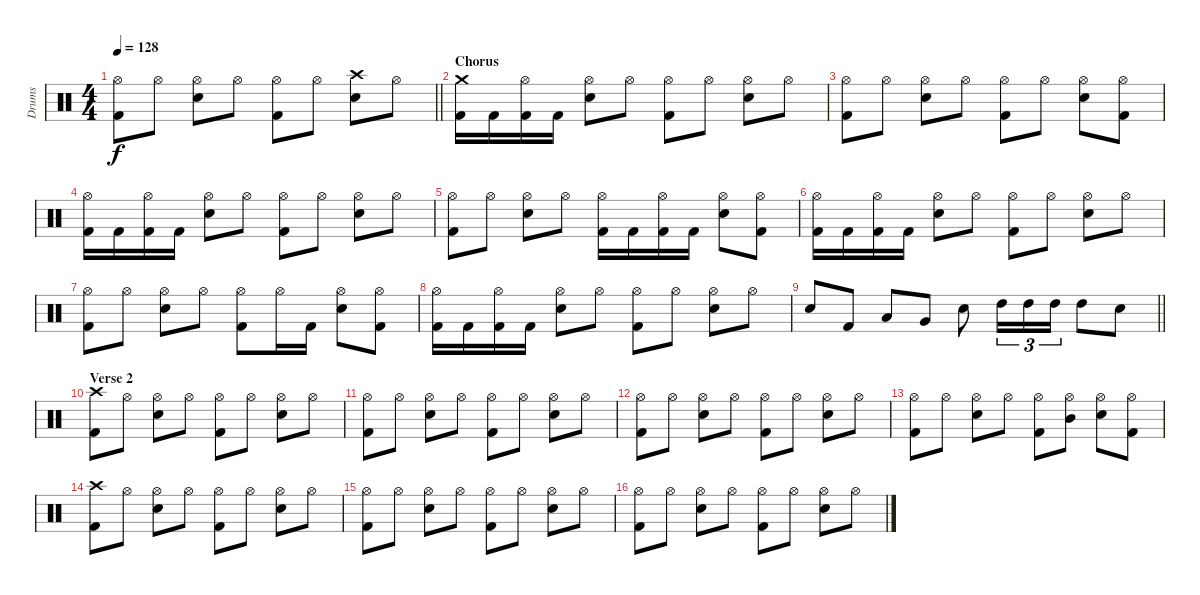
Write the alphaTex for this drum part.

\track ("Drums" "Drums") {instrument percussion}
\staff {score}
\articulation defaults
\ts (4 4)
\tempo 128
\clef neutral
\barLineRight lightlight
\ks c
("Hi-Hat (open)" "Kick (hit) 2").8{dy f} "Hi-Hat (open)".8 ("Hi-Hat (open)" "Snare (hit) 2").8 "Hi-Hat (open)".8 ("Hi-Hat (open)" "Kick (hit) 2").8 "Hi-Hat (open)".8 ("Crash high (hit)" "Snare (hit) 2").8 "Hi-Hat (open)".8 |
\section ("" "Chorus")
("Crash medium (hit)" "Kick (hit) 2").16 "Kick (hit) 2".16 ("Hi-Hat (open)" "Kick (hit) 2").16 "Kick (hit) 2".16 ("Hi-Hat (open)" "Snare (hit) 2").8 "Hi-Hat (open)".8 ("Hi-Hat (open)" "Kick (hit) 2").8 "Hi-Hat (open)".8 ("Hi-Hat (open)" "Snare (hit) 2").8 "Hi-Hat (open)".8 |
("Hi-Hat (open)" "Kick (hit) 2").8 "Hi-Hat (open)".8 ("Hi-Hat (open)" "Snare (hit) 2").8 "Hi-Hat (open)".8 ("Hi-Hat (open)" "Kick (hit) 2").8 "Hi-Hat (open)".8 ("Hi-Hat (open)" "Snare (hit) 2").8 ("Hi-Hat (open)" "Kick (hit) 2").8 |
("Hi-Hat (open)" "Kick (hit) 2").16 "Kick (hit) 2".16 ("Hi-Hat (open)" "Kick (hit) 2").16 "Kick (hit) 2".16 ("Hi-Hat (open)" "Snare (hit) 2").8 "Hi-Hat (open)".8 ("Hi-Hat (open)" "Kick (hit) 2").8 "Hi-Hat (open)".8 ("Hi-Hat (open)" "Snare (hit) 2").8 "Hi-Hat (open)".8 |
("Hi-Hat (open)" "Kick (hit) 2").8 "Hi-Hat (open)".8 ("Hi-Hat (open)" "Snare (hit) 2").8 "Hi-Hat (open)".8 ("Hi-Hat (open)" "Kick (hit) 2").16 "Kick (hit) 2".16 ("Hi-Hat (open)" "Kick (hit) 2").16 "Kick (hit) 2".16 ("Hi-Hat (open)" "Snare (hit) 2").8 ("Hi-Hat (open)" "Kick (hit) 2").8 |
("Hi-Hat (open)" "Kick (hit) 2").16 "Kick (hit) 2".16 ("Hi-Hat (open)" "Kick (hit) 2").16 "Kick (hit) 2".16 ("Hi-Hat (open)" "Snare (hit) 2").8 "Hi-Hat (open)".8 ("Hi-Hat (open)" "Kick (hit) 2").8 "Hi-Hat (open)".8 ("Hi-Hat (open)" "Snare (hit) 2").8 "Hi-Hat (open)".8 |
("Hi-Hat (open)" "Kick (hit) 2").8 "Hi-Hat (open)".8 ("Hi-Hat (open)" "Snare (hit) 2").8 "Hi-Hat (open)".8 ("Hi-Hat (open)" "Kick (hit) 2").8 "Hi-Hat (open)".16 "Kick (hit) 2".16 ("Hi-Hat (open)" "Snare (hit) 2").8 ("Hi-Hat (open)" "Kick (hit) 2").8 |
("Hi-Hat (open)" "Kick (hit) 2").16 "Kick (hit) 2".16 ("Hi-Hat (open)" "Kick (hit) 2").16 "Kick (hit) 2".16 ("Hi-Hat (open)" "Snare (hit) 2").8 "Hi-Hat (open)".8 ("Hi-Hat (open)" "Kick (hit) 2").8 "Hi-Hat (open)".8 ("Hi-Hat (open)" "Snare (hit) 2").8 "Hi-Hat (open)".8 |
\barLineRight lightlight "Snare (hit) 2".8 "Kick (hit) 2".8 "Low Tom (hit)".8 "Very Low Tom (hit)".8 "Snare (hit) 2".8 "High Tom (hit)".16{tu (3 2)} "High Tom (hit)".16{tu (3 2)} "High Tom (hit)".16{tu (3 2)} "High Tom (hit)".8 "Snare (hit) 2".8
|
\section ("" "Verse 2")
("Crash high (hit)" "Kick (hit) 2").8 "Hi-Hat (open)".8 ("Hi-Hat (open)" "Snare (hit) 2").8 "Hi-Hat (open)".8 ("Hi-Hat (open)" "Kick (hit) 2").8 "Hi-Hat (open)".8 ("Hi-Hat (open)" "Snare (hit) 2").8 "Hi-Hat (open)".8 |
("Hi-Hat (open)" "Kick (hit) 2").8 "Hi-Hat (open)".8 ("Hi-Hat (open)" "Snare (hit) 2").8 "Hi-Hat (open)".8 ("Hi-Hat (open)" "Kick (hit) 2").8 "Hi-Hat (open)".8 ("Hi-Hat (open)" "Snare (hit) 2").8 "Hi-Hat (open)".8 |
("Hi-Hat (open)" "Kick (hit) 2").8 "Hi-Hat (open)".8 ("Hi-Hat (open)" "Snare (hit) 2").8 "Hi-Hat (open)".8 ("Hi-Hat (open)" "Kick (hit) 2").8 "Hi-Hat (open)".8 ("Hi-Hat (open)" "Snare (hit) 2").8 "Hi-Hat (open)".8 |
("Hi-Hat (open)" "Kick (hit) 2").8 "Hi-Hat (open)".8 ("Hi-Hat (open)" "Snare (hit) 2").8 "Hi-Hat (open)".8 ("Hi-Hat (open)" "Kick (hit) 2").8 ("Hi-Hat (open)" "Mid Tom (hit)").8 ("Hi-Hat (open)" "Snare (hit) 2").8 ("Hi-Hat (open)" "Kick (hit) 2").8 |
("Crash high (hit)" "Kick (hit) 2").8 "Hi-Hat (open)".8 ("Hi-Hat (open)" "Snare (hit) 2").8 "Hi-Hat (open)".8 ("Hi-Hat (open)" "Kick (hit) 2").8 "Hi-Hat (open)".8 ("Hi-Hat (open)" "Snare (hit) 2").8 "Hi-Hat (open)".8 |
("Hi-Hat (open)" "Kick (hit) 2").8 "Hi-Hat (open)".8 ("Hi-Hat (open)" "Snare (hit) 2").8 "Hi-Hat (open)".8 ("Hi-Hat (open)" "Kick (hit) 2").8 "Hi-Hat (open)".8 ("Hi-Hat (open)" "Snare (hit) 2").8 "Hi-Hat (open)".8 |
("Hi-Hat (open)" "Kick (hit) 2").8 "Hi-Hat (open)".8 ("Hi-Hat (open)" "Snare (hit) 2").8 "Hi-Hat (open)".8 ("Hi-Hat (open)" "Kick (hit) 2").8 "Hi-Hat (open)".8 ("Hi-Hat (open)" "Snare (hit) 2").8 "Hi-Hat (open)".8
